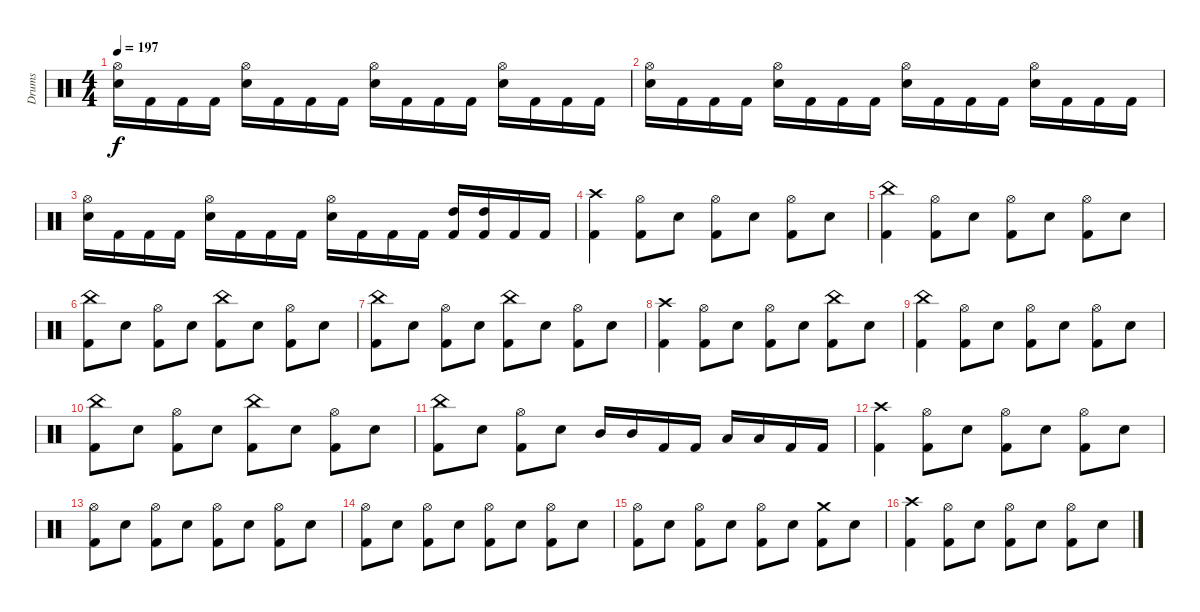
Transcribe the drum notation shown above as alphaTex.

\track ("Drums" "Drums") {instrument percussion}
\staff {score}
\articulation defaults
\ts (4 4)
\tempo 197
\clef neutral
\ks c
("Hi-Hat (open)" "Electric Snare (hit)").16{dy f} "Kick (hit) 2".16 "Kick (hit) 2".16 "Kick (hit) 2".16 ("Hi-Hat (open)" "Electric Snare (hit)").16 "Kick (hit) 2".16 "Kick (hit) 2".16 "Kick (hit) 2".16 ("Hi-Hat (open)" "Electric Snare (hit)").16 "Kick (hit) 2".16 "Kick (hit) 2".16 "Kick (hit) 2".16 ("Hi-Hat (open)" "Electric Snare (hit)").16 "Kick (hit) 2".16 "Kick (hit) 2".16 "Kick (hit) 2".16 |
("Hi-Hat (open)" "Electric Snare (hit)").16 "Kick (hit) 2".16 "Kick (hit) 2".16 "Kick (hit) 2".16 ("Hi-Hat (open)" "Electric Snare (hit)").16 "Kick (hit) 2".16 "Kick (hit) 2".16 "Kick (hit) 2".16 ("Hi-Hat (open)" "Electric Snare (hit)").16 "Kick (hit) 2".16 "Kick (hit) 2".16 "Kick (hit) 2".16 ("Hi-Hat (open)" "Electric Snare (hit)").16 "Kick (hit) 2".16 "Kick (hit) 2".16 "Kick (hit) 2".16 |
("Hi-Hat (open)" "Electric Snare (hit)").16 "Kick (hit) 2".16 "Kick (hit) 2".16 "Kick (hit) 2".16 ("Hi-Hat (open)" "Electric Snare (hit)").16 "Kick (hit) 2".16 "Kick (hit) 2".16 "Kick (hit) 2".16 ("Hi-Hat (open)" "Electric Snare (hit)").16 "Kick (hit) 2".16 "Kick (hit) 2".16 "Kick (hit) 2".16 ("High Tom (hit)" "Kick (hit) 2").16 ("High Tom (hit)" "Kick (hit) 2").16 "Kick (hit) 2".16 "Kick (hit) 2".16 |
("Crash high (hit)" "Kick (hit) 2").4 ("Hi-Hat (open)" "Kick (hit) 2").8 "Electric Snare (hit)".8 ("Hi-Hat (open)" "Kick (hit) 2").8 "Electric Snare (hit)".8 ("Hi-Hat (open)" "Kick (hit) 2").8 "Electric Snare (hit)".8 |
("China (hit)" "Kick (hit) 2").4 ("Hi-Hat (open)" "Kick (hit) 2").8 "Electric Snare (hit)".8 ("Hi-Hat (open)" "Kick (hit) 2").8 "Electric Snare (hit)".8 ("Hi-Hat (open)" "Kick (hit) 2").8 "Electric Snare (hit)".8 |
("China (hit)" "Kick (hit) 2").8 "Electric Snare (hit)".8 ("Hi-Hat (open)" "Kick (hit) 2").8 "Electric Snare (hit)".8 ("China (hit)" "Kick (hit) 2").8 "Electric Snare (hit)".8 ("Hi-Hat (open)" "Kick (hit) 2").8 "Electric Snare (hit)".8 |
("China (hit)" "Kick (hit) 2").8 "Electric Snare (hit)".8 ("Hi-Hat (open)" "Kick (hit) 2").8 "Electric Snare (hit)".8 ("China (hit)" "Kick (hit) 2").8 "Electric Snare (hit)".8 ("Hi-Hat (open)" "Kick (hit) 2").8 "Electric Snare (hit)".8 |
("Crash high (hit)" "Kick (hit) 2").4 ("Hi-Hat (open)" "Kick (hit) 2").8 "Electric Snare (hit)".8 ("Hi-Hat (open)" "Kick (hit) 2").8 "Electric Snare (hit)".8 ("China (hit)" "Kick (hit) 2").8 "Electric Snare (hit)".8 |
("China (hit)" "Kick (hit) 2").4 ("Hi-Hat (open)" "Kick (hit) 2").8 "Electric Snare (hit)".8 ("Hi-Hat (open)" "Kick (hit) 2").8 "Electric Snare (hit)".8 ("Hi-Hat (open)" "Kick (hit) 2").8 "Electric Snare (hit)".8 |
("China (hit)" "Kick (hit) 2").8 "Electric Snare (hit)".8 ("Hi-Hat (open)" "Kick (hit) 2").8 "Electric Snare (hit)".8 ("China (hit)" "Kick (hit) 2").8 "Electric Snare (hit)".8 ("Hi-Hat (open)" "Kick (hit) 2").8 "Electric Snare (hit)".8 |
("China (hit)" "Kick (hit) 2").8 "Electric Snare (hit)".8 ("Hi-Hat (open)" "Kick (hit) 2").8 "Electric Snare (hit)".8 "Mid Tom (hit)".16 "Mid Tom (hit)".16 "Kick (hit) 2".16 "Kick (hit) 2".16 "Low Tom (hit)".16 "Low Tom (hit)".16 "Kick (hit) 2".16 "Kick (hit) 2".16 |
("Crash high (hit)" "Kick (hit) 2").4 ("Hi-Hat (open)" "Kick (hit) 2").8 "Electric Snare (hit)".8 ("Hi-Hat (open)" "Kick (hit) 2").8 "Electric Snare (hit)".8 ("Hi-Hat (open)" "Kick (hit) 2").8 "Electric Snare (hit)".8 |
("Hi-Hat (open)" "Kick (hit) 2").8 "Electric Snare (hit)".8 ("Hi-Hat (open)" "Kick (hit) 2").8 "Electric Snare (hit)".8 ("Hi-Hat (open)" "Kick (hit) 2").8 "Electric Snare (hit)".8 ("Hi-Hat (open)" "Kick (hit) 2").8 "Electric Snare (hit)".8 |
("Hi-Hat (open)" "Kick (hit) 2").8 "Electric Snare (hit)".8 ("Hi-Hat (open)" "Kick (hit) 2").8 "Electric Snare (hit)".8 ("Hi-Hat (open)" "Kick (hit) 2").8 "Electric Snare (hit)".8 ("Hi-Hat (open)" "Kick (hit) 2").8 "Electric Snare (hit)".8 |
("Hi-Hat (open)" "Kick (hit) 2").8 "Electric Snare (hit)".8 ("Hi-Hat (open)" "Kick (hit) 2").8 "Electric Snare (hit)".8 ("Hi-Hat (open)" "Kick (hit) 2").8 "Electric Snare (hit)".8 ("Crash medium (hit)" "Kick (hit) 2").8 "Electric Snare (hit)".8 |
("Crash high (hit)" "Kick (hit) 2").4 ("Hi-Hat (open)" "Kick (hit) 2").8 "Electric Snare (hit)".8 ("Hi-Hat (open)" "Kick (hit) 2").8 "Electric Snare (hit)".8 ("Hi-Hat (open)" "Kick (hit) 2").8 "Electric Snare (hit)".8
